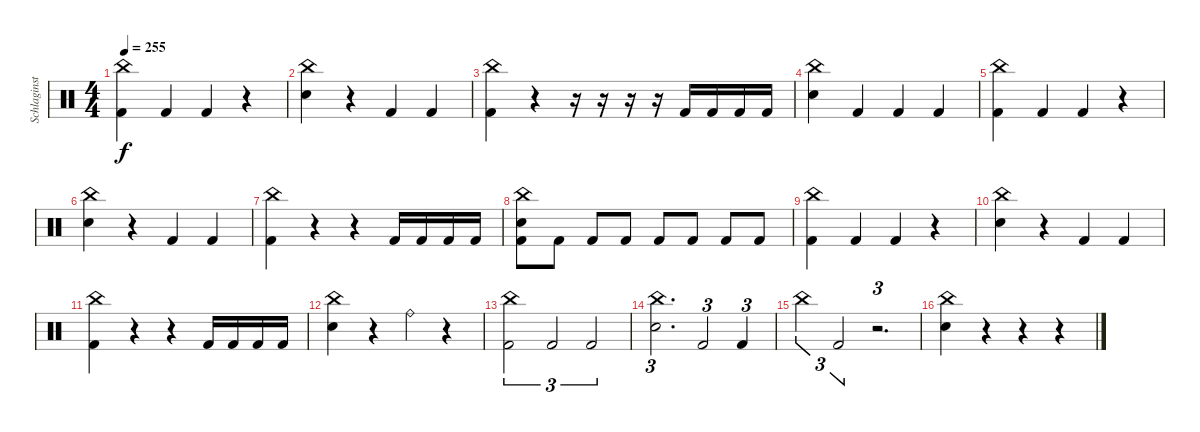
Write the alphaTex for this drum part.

\track ("Schlaginstrumente - Auswahl" "Schlaginst") {instrument percussion}
\staff {score}
\articulation defaults
\ts (4 4)
\tempo 255
\clef neutral
\ks c
("China (hit)" "Kick (hit) 2").4{dy f} "Kick (hit) 2".4 "Kick (hit) 2".4 r.4 |
("China (hit)" "Electric Snare (hit)").4 r.4 "Kick (hit) 2".4 "Kick (hit) 2".4 |
("China (hit)" "Kick (hit) 2").4 r.4 r.16 r.16 r.16 r.16 "Kick (hit) 2".16 "Kick (hit) 2".16 "Kick (hit) 2".16 "Kick (hit) 2".16 |
("China (hit)" "Electric Snare (hit)").4 "Kick (hit) 2".4 "Kick (hit) 2".4 "Kick (hit) 2".4 |
("China (hit)" "Kick (hit) 2").4 "Kick (hit) 2".4 "Kick (hit) 2".4 r.4 |
("China (hit)" "Electric Snare (hit)").4 r.4 "Kick (hit) 2".4 "Kick (hit) 2".4 |
("China (hit)" "Kick (hit) 2").4 r.4 r.4 "Kick (hit) 2".16 "Kick (hit) 2".16 "Kick (hit) 2".16 "Kick (hit) 2".16 |
("China (hit)" "Electric Snare (hit)" "Kick (hit) 2").8 "Kick (hit) 2".8 "Kick (hit) 2".8 "Kick (hit) 2".8 "Kick (hit) 2".8 "Kick (hit) 2".8 "Kick (hit) 2".8 "Kick (hit) 2".8 |
("China (hit)" "Kick (hit) 2").4 "Kick (hit) 2".4 "Kick (hit) 2".4 r.4 |
("China (hit)" "Electric Snare (hit)").4 r.4 "Kick (hit) 2".4 "Kick (hit) 2".4 |
("China (hit)" "Kick (hit) 2").4 r.4 r.4 "Kick (hit) 2".16 "Kick (hit) 2".16 "Kick (hit) 2".16 "Kick (hit) 2".16 |
("China (hit)" "Electric Snare (hit)").4 r.4 "Ride (bell)".4 r.4 |
("China (hit)" "Kick (hit) 2").2{tu (3 2)} "Kick (hit) 2".2{tu (3 2)} "Kick (hit) 2".2{tu (3 2)} |
("China (hit)" "Electric Snare (hit)").2{d tu (3 2)} "Kick (hit) 2".2{tu (3 2)} "Kick (hit) 2".4{tu (3 2)} |
"China (hit)".4{tu (3 2)} "Kick (hit) 2".2{tu (3 2)} r.2{d tu (3 2)} |
("China (hit)" "Electric Snare (hit)").4 r.4 r.4 r.4
